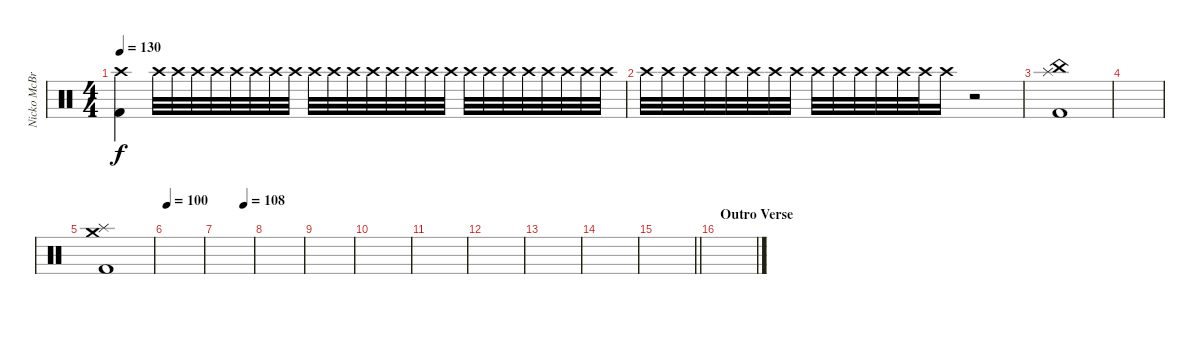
\track ("Nicko McBrain" "Nicko McBr") {instrument percussion}
\staff {score}
\articulation defaults
\ts (4 4)
\tempo 130
\clef neutral
\ks c
("Crash high (hit)" "Kick (hit) 2").4{dy f} "Crash high (hit)".32{volume 6} "Crash high (hit)".32{volume 16} "Crash high (hit)".32 "Crash high (hit)".32 "Crash high (hit)".32 "Crash high (hit)".32 "Crash high (hit)".32 "Crash high (hit)".32 "Crash high (hit)".32 "Crash high (hit)".32 "Crash high (hit)".32 "Crash high (hit)".32 "Crash high (hit)".32 "Crash high (hit)".32 "Crash high (hit)".32 "Crash high (hit)".32 "Crash high (hit)".32 "Crash high (hit)".32 "Crash high (hit)".32 "Crash high (hit)".32 "Crash high (hit)".32 "Crash high (hit)".32 "Crash high (hit)".32 "Crash high (hit)".32 |
"Crash high (hit)".32 "Crash high (hit)".32 "Crash high (hit)".32 "Crash high (hit)".32 "Crash high (hit)".32 "Crash high (hit)".32 "Crash high (hit)".32 "Crash high (hit)".32 "Crash high (hit)".32 "Crash high (hit)".32 "Crash high (hit)".32 "Crash high (hit)".32 "Crash high (hit)".32 "Crash high (hit)".32 "Crash high (hit)".16 r.2 |
("Splash (hit)" "China (hit)" "Kick (hit) 2").1 |
|
("Crash medium (hit)" "Splash (hit)" "Kick (hit) 2").1 |
\tempo 100
|
\tempo (108 0.75)
|
|
|
|
|
|
|
|
\barLineRight lightlight
|
\section ("" "Outro Verse")
